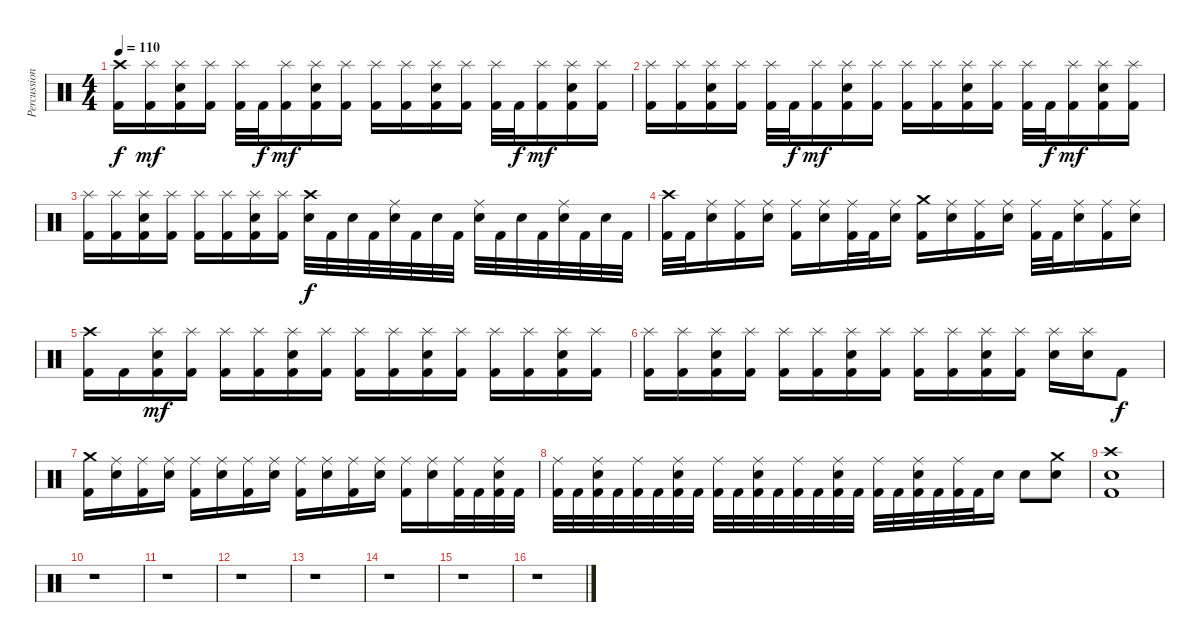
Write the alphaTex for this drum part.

\track ("Percussion" "Percussion") {instrument percussion}
\staff {score}
\articulation defaults
\ts (4 4)
\section ("" "")
\tempo 110
\clef neutral
\ks c
("Crash high (hit)" "Kick (hit) 2").16{dy f} ("Splash (hit)" "Kick (hit) 2").16{dy mf} ("Splash (hit)" "Snare (hit) 2" "Kick (hit) 2").16 ("Splash (hit)" "Kick (hit) 2").16 ("Splash (hit)" "Kick (hit) 2").32 "Kick (hit) 2".32{dy f} ("Splash (hit)" "Kick (hit) 2").16{dy mf} ("Splash (hit)" "Snare (hit) 2" "Kick (hit) 2").16 ("Splash (hit)" "Kick (hit) 2").16 ("Splash (hit)" "Kick (hit) 2").16 ("Splash (hit)" "Kick (hit) 2").16 ("Splash (hit)" "Snare (hit) 2" "Kick (hit) 2").16 ("Splash (hit)" "Kick (hit) 2").16 ("Splash (hit)" "Kick (hit) 2").32 "Kick (hit) 2".32{dy f} ("Splash (hit)" "Kick (hit) 2").16{dy mf} ("Splash (hit)" "Snare (hit) 2" "Kick (hit) 2").16 ("Splash (hit)" "Kick (hit) 2").16 |
("Splash (hit)" "Kick (hit) 2").16 ("Splash (hit)" "Kick (hit) 2").16 ("Splash (hit)" "Snare (hit) 2" "Kick (hit) 2").16 ("Splash (hit)" "Kick (hit) 2").16 ("Splash (hit)" "Kick (hit) 2").32 "Kick (hit) 2".32{dy f} ("Splash (hit)" "Kick (hit) 2").16{dy mf} ("Splash (hit)" "Snare (hit) 2" "Kick (hit) 2").16 ("Splash (hit)" "Kick (hit) 2").16 ("Splash (hit)" "Kick (hit) 2").16 ("Splash (hit)" "Kick (hit) 2").16 ("Splash (hit)" "Snare (hit) 2" "Kick (hit) 2").16 ("Splash (hit)" "Kick (hit) 2").16 ("Splash (hit)" "Kick (hit) 2").32 "Kick (hit) 2".32{dy f} ("Splash (hit)" "Kick (hit) 2").16{dy mf} ("Splash (hit)" "Snare (hit) 2" "Kick (hit) 2").16 ("Splash (hit)" "Kick (hit) 2").16 |
("Splash (hit)" "Kick (hit) 2").16 ("Splash (hit)" "Kick (hit) 2").16 ("Splash (hit)" "Snare (hit) 2" "Kick (hit) 2").16 ("Splash (hit)" "Kick (hit) 2").16 ("Splash (hit)" "Kick (hit) 2").16 ("Splash (hit)" "Kick (hit) 2").16 ("Splash (hit)" "Snare (hit) 2" "Kick (hit) 2").16 ("Splash (hit)" "Kick (hit) 2").16 ("Crash high (hit)" "Snare (hit) 2").32{dy f} "Kick (hit) 2".32 "Snare (hit) 2".32 "Kick (hit) 2".32 ("Ride (middle)" "Snare (hit) 2").32 "Kick (hit) 2".32 "Snare (hit) 2".32 "Kick (hit) 2".32 ("Ride (middle)" "Snare (hit) 2").32 "Kick (hit) 2".32 "Snare (hit) 2".32 "Kick (hit) 2".32 ("Ride (middle)" "Snare (hit) 2").32 "Kick (hit) 2".32 "Snare (hit) 2".32 "Kick (hit) 2".32 |
("Crash high (hit)" "Kick (hit) 2").32 "Kick (hit) 2".32 ("Ride (middle)" "Snare (hit) 2").16 ("Ride (middle)" "Kick (hit) 2").16 ("Ride (middle)" "Snare (hit) 2").16 ("Ride (middle)" "Kick (hit) 2").16 ("Ride (middle)" "Snare (hit) 2").16 ("Ride (middle)" "Kick (hit) 2").32 "Kick (hit) 2".32 ("Ride (middle)" "Snare (hit) 2").16 ("Crash medium (hit)" "Kick (hit) 2").16 ("Ride (middle)" "Snare (hit) 2").16 ("Ride (middle)" "Kick (hit) 2").16 ("Ride (middle)" "Snare (hit) 2").16 ("Ride (middle)" "Kick (hit) 2").32 "Kick (hit) 2".32 ("Ride (middle)" "Snare (hit) 2").16 ("Ride (middle)" "Kick (hit) 2").16 ("Ride (middle)" "Snare (hit) 2").16 |
("Crash high (hit)" "Kick (hit) 2").16 "Kick (hit) 2".16 ("Splash (hit)" "Snare (hit) 2" "Kick (hit) 2").16{dy mf} ("Splash (hit)" "Kick (hit) 2").16 ("Splash (hit)" "Kick (hit) 2").16 ("Splash (hit)" "Kick (hit) 2").16 ("Splash (hit)" "Snare (hit) 2" "Kick (hit) 2").16 ("Splash (hit)" "Kick (hit) 2").16 ("Splash (hit)" "Kick (hit) 2").16 ("Splash (hit)" "Kick (hit) 2").16 ("Splash (hit)" "Snare (hit) 2" "Kick (hit) 2").16 ("Splash (hit)" "Kick (hit) 2").16 ("Splash (hit)" "Kick (hit) 2").16 ("Splash (hit)" "Kick (hit) 2").16 ("Splash (hit)" "Snare (hit) 2" "Kick (hit) 2").16 ("Splash (hit)" "Kick (hit) 2").16 |
("Splash (hit)" "Kick (hit) 2").16 ("Splash (hit)" "Kick (hit) 2").16 ("Splash (hit)" "Snare (hit) 2" "Kick (hit) 2").16 ("Splash (hit)" "Kick (hit) 2").16 ("Splash (hit)" "Kick (hit) 2").16 ("Splash (hit)" "Kick (hit) 2").16 ("Splash (hit)" "Snare (hit) 2" "Kick (hit) 2").16 ("Splash (hit)" "Kick (hit) 2").16 ("Splash (hit)" "Kick (hit) 2").16 ("Splash (hit)" "Kick (hit) 2").16 ("Splash (hit)" "Snare (hit) 2" "Kick (hit) 2").16 ("Splash (hit)" "Kick (hit) 2").16 ("Splash (hit)" "Snare (hit) 2").16 ("Splash (hit)" "Snare (hit) 2").16 "Kick (hit) 2".8{dy f} |
("Crash medium (hit)" "Kick (hit) 2").16 ("Ride (middle)" "Snare (hit) 2").16 ("Ride (middle)" "Kick (hit) 2").16 ("Ride (middle)" "Snare (hit) 2").16 ("Ride (middle)" "Kick (hit) 2").16 ("Ride (middle)" "Snare (hit) 2").16 ("Ride (middle)" "Kick (hit) 2").16 ("Ride (middle)" "Snare (hit) 2").16 ("Ride (middle)" "Kick (hit) 2").16 ("Ride (middle)" "Snare (hit) 2").16 ("Ride (middle)" "Kick (hit) 2").16 ("Ride (middle)" "Snare (hit) 2").16 ("Ride (middle)" "Kick (hit) 2").16 ("Ride (middle)" "Snare (hit) 2").16 ("Ride (middle)" "Kick (hit) 2").32 "Kick (hit) 2".32 ("Ride (middle)" "Snare (hit) 2" "Kick (hit) 2").32 "Kick (hit) 2".32 |
("Ride (middle)" "Kick (hit) 2").32 "Kick (hit) 2".32 ("Ride (middle)" "Snare (hit) 2" "Kick (hit) 2").32 "Kick (hit) 2".32 ("Ride (middle)" "Kick (hit) 2").32 "Kick (hit) 2".32 ("Ride (middle)" "Snare (hit) 2" "Kick (hit) 2").32 "Kick (hit) 2".32 ("Ride (middle)" "Kick (hit) 2").32 "Kick (hit) 2".32 ("Ride (middle)" "Snare (hit) 2" "Kick (hit) 2").32 "Kick (hit) 2".32 ("Ride (middle)" "Kick (hit) 2").32 "Kick (hit) 2".32 ("Ride (middle)" "Snare (hit) 2" "Kick (hit) 2").32 "Kick (hit) 2".32 ("Ride (middle)" "Kick (hit) 2").32 "Kick (hit) 2".32 ("Ride (middle)" "Snare (hit) 2" "Kick (hit) 2").32 "Kick (hit) 2".32 ("Ride (middle)" "Kick (hit) 2").32 "Kick (hit) 2".32 "Snare (hit) 2".16 "Snare (hit) 2".8 ("Crash medium (hit)" "Snare (hit) 2").8 |
\section ("" "")
("Crash high (hit)" "Kick (hit) 2" "Snare (hit) 2").1 |
r.1 |
r.1 |
r.1 |
r.1 |
r.1 |
r.1 |
r.1
